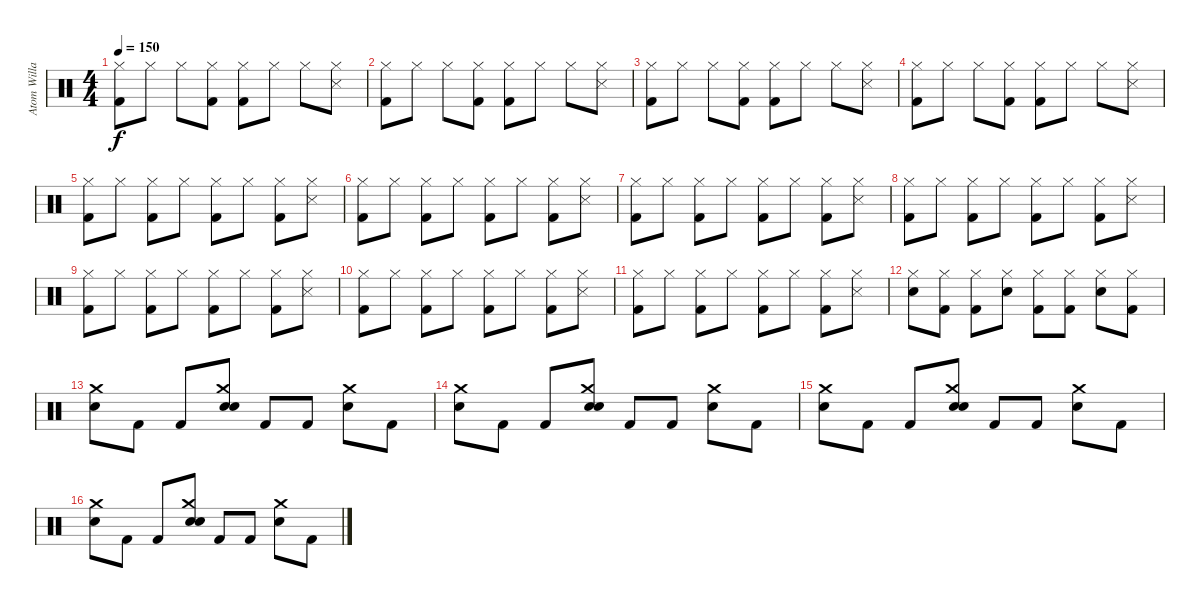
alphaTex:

\track ("Atom Willard Drums" "Atom Willa") {instrument percussion}
\staff {score}
\articulation defaults
\ts (4 4)
\tempo 150
\clef neutral
\ks c
("Hi-Hat (closed)" "Kick (hit) 2").8{dy f} "Hi-Hat (closed)".8 "Hi-Hat (closed)".8 ("Hi-Hat (closed)" "Kick (hit) 2").8 ("Hi-Hat (closed)" "Kick (hit) 2").8 "Hi-Hat (closed)".8 "Hi-Hat (closed)".8 ("Hi-Hat (closed)" "Snare (side stick) 3").8 |
("Hi-Hat (closed)" "Kick (hit) 2").8 "Hi-Hat (closed)".8 "Hi-Hat (closed)".8 ("Hi-Hat (closed)" "Kick (hit) 2").8 ("Hi-Hat (closed)" "Kick (hit) 2").8 "Hi-Hat (closed)".8 "Hi-Hat (closed)".8 ("Hi-Hat (closed)" "Snare (side stick) 3").8 |
("Hi-Hat (closed)" "Kick (hit) 2").8 "Hi-Hat (closed)".8 "Hi-Hat (closed)".8 ("Hi-Hat (closed)" "Kick (hit) 2").8 ("Hi-Hat (closed)" "Kick (hit) 2").8 "Hi-Hat (closed)".8 "Hi-Hat (closed)".8 ("Hi-Hat (closed)" "Snare (side stick) 3").8 |
("Hi-Hat (closed)" "Kick (hit) 2").8 "Hi-Hat (closed)".8 "Hi-Hat (closed)".8 ("Hi-Hat (closed)" "Kick (hit) 2").8 ("Hi-Hat (closed)" "Kick (hit) 2").8 "Hi-Hat (closed)".8 "Hi-Hat (closed)".8 ("Hi-Hat (closed)" "Snare (side stick) 3").8 |
("Hi-Hat (closed)" "Kick (hit) 2").8 "Hi-Hat (closed)".8 ("Hi-Hat (closed)" "Kick (hit) 2").8 "Hi-Hat (closed)".8 ("Hi-Hat (closed)" "Kick (hit) 2").8 "Hi-Hat (closed)".8 ("Hi-Hat (closed)" "Kick (hit) 2").8 ("Hi-Hat (closed)" "Snare (side stick) 3").8 |
("Hi-Hat (closed)" "Kick (hit) 2").8 "Hi-Hat (closed)".8 ("Hi-Hat (closed)" "Kick (hit) 2").8 "Hi-Hat (closed)".8 ("Hi-Hat (closed)" "Kick (hit) 2").8 "Hi-Hat (closed)".8 ("Hi-Hat (closed)" "Kick (hit) 2").8 ("Hi-Hat (closed)" "Snare (side stick) 3").8 |
("Hi-Hat (closed)" "Kick (hit) 2").8 "Hi-Hat (closed)".8 ("Hi-Hat (closed)" "Kick (hit) 2").8 "Hi-Hat (closed)".8 ("Hi-Hat (closed)" "Kick (hit) 2").8 "Hi-Hat (closed)".8 ("Hi-Hat (closed)" "Kick (hit) 2").8 ("Hi-Hat (closed)" "Snare (side stick) 3").8 |
("Hi-Hat (closed)" "Kick (hit) 2").8 "Hi-Hat (closed)".8 ("Hi-Hat (closed)" "Kick (hit) 2").8 "Hi-Hat (closed)".8 ("Hi-Hat (closed)" "Kick (hit) 2").8 "Hi-Hat (closed)".8 ("Hi-Hat (closed)" "Kick (hit) 2").8 ("Hi-Hat (closed)" "Snare (side stick) 3").8 |
("Hi-Hat (closed)" "Kick (hit) 2").8 "Hi-Hat (closed)".8 ("Hi-Hat (closed)" "Kick (hit) 2").8 "Hi-Hat (closed)".8 ("Hi-Hat (closed)" "Kick (hit) 2").8 "Hi-Hat (closed)".8 ("Hi-Hat (closed)" "Kick (hit) 2").8 ("Hi-Hat (closed)" "Snare (side stick) 3").8 |
("Hi-Hat (closed)" "Kick (hit) 2").8 "Hi-Hat (closed)".8 ("Hi-Hat (closed)" "Kick (hit) 2").8 "Hi-Hat (closed)".8 ("Hi-Hat (closed)" "Kick (hit) 2").8 "Hi-Hat (closed)".8 ("Hi-Hat (closed)" "Kick (hit) 2").8 ("Hi-Hat (closed)" "Snare (side stick) 3").8 |
("Hi-Hat (closed)" "Kick (hit) 2").8 "Hi-Hat (closed)".8 ("Hi-Hat (closed)" "Kick (hit) 2").8 "Hi-Hat (closed)".8 ("Hi-Hat (closed)" "Kick (hit) 2").8 "Hi-Hat (closed)".8 ("Hi-Hat (closed)" "Kick (hit) 2").8 ("Hi-Hat (closed)" "Snare (side stick) 3").8 |
("Hi-Hat (closed)" "Electric Snare (hit)").8 ("Hi-Hat (closed)" "Kick (hit) 2").8 ("Hi-Hat (closed)" "Kick (hit) 2").8 ("Hi-Hat (closed)" "Electric Snare (hit)").8 ("Hi-Hat (closed)" "Kick (hit) 2").8 ("Hi-Hat (closed)" "Kick (hit) 2").8 ("Hi-Hat (closed)" "Electric Snare (hit)").8 ("Hi-Hat (closed)" "Kick (hit) 2").8 |
("Crash medium (hit)" "Electric Snare (hit)").8 "Kick (hit) 2".8 "Kick (hit) 2".8 ("Crash medium (hit)" "Electric Snare (hit)" "Snare (hit)").8 "Kick (hit) 2".8 "Kick (hit) 2".8 ("Crash medium (hit)" "Electric Snare (hit)").8 "Kick (hit) 2".8 |
("Crash medium (hit)" "Electric Snare (hit)").8 "Kick (hit) 2".8 "Kick (hit) 2".8 ("Crash medium (hit)" "Electric Snare (hit)" "Snare (hit)").8 "Kick (hit) 2".8 "Kick (hit) 2".8 ("Crash medium (hit)" "Electric Snare (hit)").8 "Kick (hit) 2".8 |
("Crash medium (hit)" "Electric Snare (hit)").8 "Kick (hit) 2".8 "Kick (hit) 2".8 ("Crash medium (hit)" "Electric Snare (hit)" "Snare (hit)").8 "Kick (hit) 2".8 "Kick (hit) 2".8 ("Crash medium (hit)" "Electric Snare (hit)").8 "Kick (hit) 2".8 |
("Crash medium (hit)" "Electric Snare (hit)").8 "Kick (hit) 2".8 "Kick (hit) 2".8 ("Crash medium (hit)" "Electric Snare (hit)" "Snare (hit)").8 "Kick (hit) 2".8 "Kick (hit) 2".8 ("Crash medium (hit)" "Electric Snare (hit)").8 "Kick (hit) 2".8
